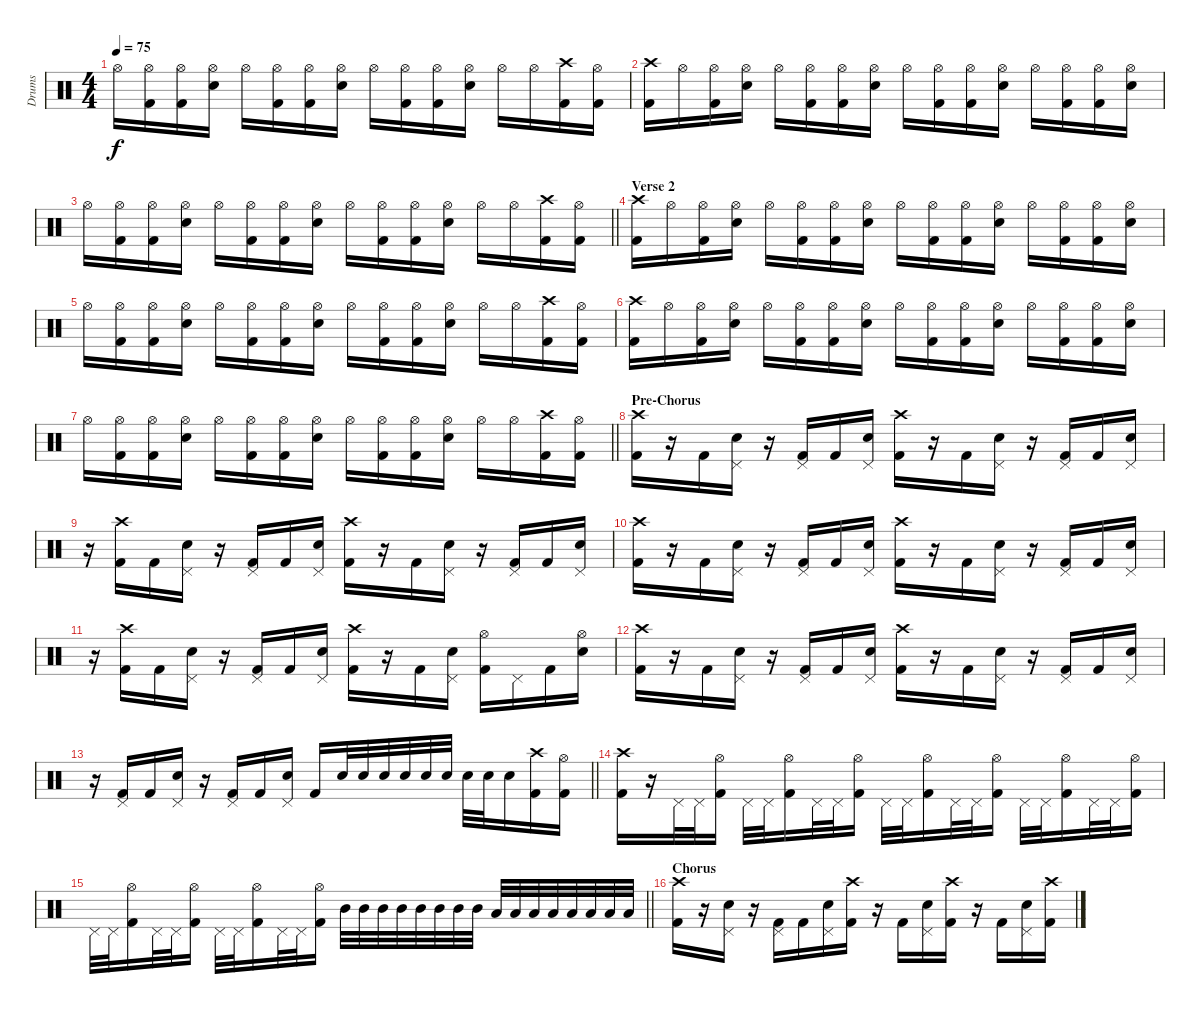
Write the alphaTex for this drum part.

\track ("Drums" "Drums") {instrument percussion}
\staff {score}
\articulation defaults
\ts (4 4)
\tempo 75
\clef neutral
\ks c "Hi-Hat (open)".16{dy f}
("Hi-Hat (open)" "Kick (hit) 2").16 ("Hi-Hat (open)" "Kick (hit) 2").16 ("Hi-Hat (open)" "Snare (hit) 2").16 "Hi-Hat (open)".16 ("Hi-Hat (open)" "Kick (hit) 2").16 ("Hi-Hat (open)" "Kick (hit) 2").16 ("Hi-Hat (open)" "Snare (hit) 2").16 "Hi-Hat (open)".16 ("Hi-Hat (open)" "Kick (hit) 2").16 ("Hi-Hat (open)" "Kick (hit) 2").16 ("Hi-Hat (open)" "Snare (hit) 2").16 "Hi-Hat (open)".16 "Hi-Hat (open)".16 ("Crash high (hit)" "Kick (hit) 2").16 ("Hi-Hat (open)" "Kick (hit) 2").16 |
("Crash high (hit)" "Kick (hit) 2").16 "Hi-Hat (open)".16 ("Hi-Hat (open)" "Kick (hit) 2").16 ("Hi-Hat (open)" "Snare (hit) 2").16 "Hi-Hat (open)".16 ("Hi-Hat (open)" "Kick (hit) 2").16 ("Hi-Hat (open)" "Kick (hit) 2").16 ("Hi-Hat (open)" "Snare (hit) 2").16 "Hi-Hat (open)".16 ("Hi-Hat (open)" "Kick (hit) 2").16 ("Hi-Hat (open)" "Kick (hit) 2").16 ("Hi-Hat (open)" "Snare (hit) 2").16 "Hi-Hat (open)".16 ("Hi-Hat (open)" "Kick (hit) 2").16 ("Hi-Hat (open)" "Kick (hit) 2").16 ("Hi-Hat (open)" "Snare (hit) 2").16 |
\barLineRight lightlight "Hi-Hat (open)".16
("Hi-Hat (open)" "Kick (hit) 2").16 ("Hi-Hat (open)" "Kick (hit) 2").16 ("Hi-Hat (open)" "Snare (hit) 2").16 "Hi-Hat (open)".16 ("Hi-Hat (open)" "Kick (hit) 2").16 ("Hi-Hat (open)" "Kick (hit) 2").16 ("Hi-Hat (open)" "Snare (hit) 2").16 "Hi-Hat (open)".16 ("Hi-Hat (open)" "Kick (hit) 2").16 ("Hi-Hat (open)" "Kick (hit) 2").16 ("Hi-Hat (open)" "Snare (hit) 2").16 "Hi-Hat (open)".16 "Hi-Hat (open)".16 ("Crash high (hit)" "Kick (hit) 2").16 ("Hi-Hat (open)" "Kick (hit) 2").16 |
\section ("" "Verse 2")
("Crash high (hit)" "Kick (hit) 2").16 "Hi-Hat (open)".16 ("Hi-Hat (open)" "Kick (hit) 2").16 ("Hi-Hat (open)" "Snare (hit) 2").16 "Hi-Hat (open)".16 ("Hi-Hat (open)" "Kick (hit) 2").16 ("Hi-Hat (open)" "Kick (hit) 2").16 ("Hi-Hat (open)" "Snare (hit) 2").16 "Hi-Hat (open)".16 ("Hi-Hat (open)" "Kick (hit) 2").16 ("Hi-Hat (open)" "Kick (hit) 2").16 ("Hi-Hat (open)" "Snare (hit) 2").16 "Hi-Hat (open)".16 ("Hi-Hat (open)" "Kick (hit) 2").16 ("Hi-Hat (open)" "Kick (hit) 2").16 ("Hi-Hat (open)" "Snare (hit) 2").16 |
"Hi-Hat (open)".16 ("Hi-Hat (open)" "Kick (hit) 2").16 ("Hi-Hat (open)" "Kick (hit) 2").16 ("Hi-Hat (open)" "Snare (hit) 2").16 "Hi-Hat (open)".16 ("Hi-Hat (open)" "Kick (hit) 2").16 ("Hi-Hat (open)" "Kick (hit) 2").16 ("Hi-Hat (open)" "Snare (hit) 2").16 "Hi-Hat (open)".16 ("Hi-Hat (open)" "Kick (hit) 2").16 ("Hi-Hat (open)" "Kick (hit) 2").16 ("Hi-Hat (open)" "Snare (hit) 2").16 "Hi-Hat (open)".16 "Hi-Hat (open)".16 ("Crash high (hit)" "Kick (hit) 2").16 ("Hi-Hat (open)" "Kick (hit) 2").16 |
("Crash high (hit)" "Kick (hit) 2").16 "Hi-Hat (open)".16 ("Hi-Hat (open)" "Kick (hit) 2").16 ("Hi-Hat (open)" "Snare (hit) 2").16 "Hi-Hat (open)".16 ("Hi-Hat (open)" "Kick (hit) 2").16 ("Hi-Hat (open)" "Kick (hit) 2").16 ("Hi-Hat (open)" "Snare (hit) 2").16 "Hi-Hat (open)".16 ("Hi-Hat (open)" "Kick (hit) 2").16 ("Hi-Hat (open)" "Kick (hit) 2").16 ("Hi-Hat (open)" "Snare (hit) 2").16 "Hi-Hat (open)".16 ("Hi-Hat (open)" "Kick (hit) 2").16 ("Hi-Hat (open)" "Kick (hit) 2").16 ("Hi-Hat (open)" "Snare (hit) 2").16 |
\barLineRight lightlight "Hi-Hat (open)".16
("Hi-Hat (open)" "Kick (hit) 2").16 ("Hi-Hat (open)" "Kick (hit) 2").16 ("Hi-Hat (open)" "Snare (hit) 2").16 "Hi-Hat (open)".16 ("Hi-Hat (open)" "Kick (hit) 2").16 ("Hi-Hat (open)" "Kick (hit) 2").16 ("Hi-Hat (open)" "Snare (hit) 2").16 "Hi-Hat (open)".16 ("Hi-Hat (open)" "Kick (hit) 2").16 ("Hi-Hat (open)" "Kick (hit) 2").16 ("Hi-Hat (open)" "Snare (hit) 2").16 "Hi-Hat (open)".16 "Hi-Hat (open)".16 ("Crash high (hit)" "Kick (hit) 2").16 ("Hi-Hat (open)" "Kick (hit) 2").16 |
\section ("" "Pre-Chorus")
("Crash high (hit)" "Kick (hit) 2").16 r.16 "Kick (hit) 2".16 ("Pedal Hi-Hat (hit)" "Snare (hit) 2").16 r.16 ("Pedal Hi-Hat (hit)" "Kick (hit) 2").16 "Kick (hit) 2".16 ("Pedal Hi-Hat (hit)" "Snare (hit) 2").16 ("Crash high (hit)" "Kick (hit) 2").16 r.16 "Kick (hit) 2".16 ("Pedal Hi-Hat (hit)" "Snare (hit) 2").16 r.16 ("Pedal Hi-Hat (hit)" "Kick (hit) 2").16 "Kick (hit) 2".16 ("Pedal Hi-Hat (hit)" "Snare (hit) 2").16 |
r.16 ("Crash high (hit)" "Kick (hit) 2").16 "Kick (hit) 2".16 ("Pedal Hi-Hat (hit)" "Snare (hit) 2").16 r.16 ("Pedal Hi-Hat (hit)" "Kick (hit) 2").16 "Kick (hit) 2".16 ("Pedal Hi-Hat (hit)" "Snare (hit) 2").16 ("Crash high (hit)" "Kick (hit) 2").16 r.16 "Kick (hit) 2".16 ("Pedal Hi-Hat (hit)" "Snare (hit) 2").16 r.16 ("Pedal Hi-Hat (hit)" "Kick (hit) 2").16 "Kick (hit) 2".16 ("Pedal Hi-Hat (hit)" "Snare (hit) 2").16 |
("Crash high (hit)" "Kick (hit) 2").16 r.16 "Kick (hit) 2".16 ("Pedal Hi-Hat (hit)" "Snare (hit) 2").16 r.16 ("Pedal Hi-Hat (hit)" "Kick (hit) 2").16 "Kick (hit) 2".16 ("Pedal Hi-Hat (hit)" "Snare (hit) 2").16 ("Crash high (hit)" "Kick (hit) 2").16 r.16 "Kick (hit) 2".16 ("Pedal Hi-Hat (hit)" "Snare (hit) 2").16 r.16 ("Pedal Hi-Hat (hit)" "Kick (hit) 2").16 "Kick (hit) 2".16 ("Pedal Hi-Hat (hit)" "Snare (hit) 2").16 |
r.16 ("Crash high (hit)" "Kick (hit) 2").16 "Kick (hit) 2".16 ("Pedal Hi-Hat (hit)" "Snare (hit) 2").16 r.16 ("Pedal Hi-Hat (hit)" "Kick (hit) 2").16 "Kick (hit) 2".16 ("Pedal Hi-Hat (hit)" "Snare (hit) 2").16 ("Crash high (hit)" "Kick (hit) 2").16 r.16 "Kick (hit) 2".16 ("Pedal Hi-Hat (hit)" "Snare (hit) 2").16 ("Hi-Hat (open)" "Kick (hit) 2").16 "Pedal Hi-Hat (hit)".16 "Kick (hit) 2".16 ("Hi-Hat (open)" "Snare (hit) 2").16 |
("Crash high (hit)" "Kick (hit) 2").16 r.16 "Kick (hit) 2".16 ("Pedal Hi-Hat (hit)" "Snare (hit) 2").16 r.16 ("Pedal Hi-Hat (hit)" "Kick (hit) 2").16 "Kick (hit) 2".16 ("Pedal Hi-Hat (hit)" "Snare (hit) 2").16 ("Crash high (hit)" "Kick (hit) 2").16 r.16 "Kick (hit) 2".16 ("Pedal Hi-Hat (hit)" "Snare (hit) 2").16 r.16 ("Pedal Hi-Hat (hit)" "Kick (hit) 2").16 "Kick (hit) 2".16 ("Pedal Hi-Hat (hit)" "Snare (hit) 2").16 |
\barLineRight lightlight
r.16 ("Pedal Hi-Hat (hit)" "Kick (hit) 2").16 "Kick (hit) 2".16 ("Pedal Hi-Hat (hit)" "Snare (hit) 2").16 r.16 ("Pedal Hi-Hat (hit)" "Kick (hit) 2").16 "Kick (hit) 2".16 ("Pedal Hi-Hat (hit)" "Snare (hit) 2").16 "Kick (hit) 2".16 "Snare (hit) 2".32 "Snare (hit) 2".32 "Snare (hit) 2".32 "Snare (hit) 2".32 "Snare (hit) 2".32 "Snare (hit) 2".32 "Snare (hit) 2".32 "Snare (hit) 2".32 "Snare (hit) 2".16 ("Crash high (hit)" "Kick (hit) 2").16 ("Hi-Hat (open)" "Kick (hit) 2").16 |
("Crash high (hit)" "Kick (hit) 2").16 r.16 "Pedal Hi-Hat (hit)".32 "Pedal Hi-Hat (hit)".32 ("Hi-Hat (open)" "Kick (hit) 2").16 "Pedal Hi-Hat (hit)".32 "Pedal Hi-Hat (hit)".32 ("Hi-Hat (open)" "Kick (hit) 2").16 "Pedal Hi-Hat (hit)".32 "Pedal Hi-Hat (hit)".32 ("Hi-Hat (open)" "Kick (hit) 2").16 "Pedal Hi-Hat (hit)".32 "Pedal Hi-Hat (hit)".32 ("Hi-Hat (open)" "Kick (hit) 2").16 "Pedal Hi-Hat (hit)".32 "Pedal Hi-Hat (hit)".32 ("Hi-Hat (open)" "Kick (hit) 2").16 "Pedal Hi-Hat (hit)".32 "Pedal Hi-Hat (hit)".32 ("Hi-Hat (open)" "Kick (hit) 2").16 "Pedal Hi-Hat (hit)".32 "Pedal Hi-Hat (hit)".32 ("Hi-Hat (open)" "Kick (hit) 2").16 |
\barLineRight lightlight "Pedal Hi-Hat (hit)".32 "Pedal Hi-Hat (hit)".32
("Hi-Hat (open)" "Kick (hit) 2").16 "Pedal Hi-Hat (hit)".32 "Pedal Hi-Hat (hit)".32 ("Hi-Hat (open)" "Kick (hit) 2").16 "Pedal Hi-Hat (hit)".32 "Pedal Hi-Hat (hit)".32 ("Hi-Hat (open)" "Kick (hit) 2").16 "Pedal Hi-Hat (hit)".32 "Pedal Hi-Hat (hit)".32 ("Hi-Hat (open)" "Kick (hit) 2").16 "Mid Tom (hit)".32 "Mid Tom (hit)".32 "Mid Tom (hit)".32 "Mid Tom (hit)".32 "Mid Tom (hit)".32 "Mid Tom (hit)".32 "Mid Tom (hit)".32 "Mid Tom (hit)".32 "Low Tom (hit)".32 "Low Tom (hit)".32 "Low Tom (hit)".32 "Low Tom (hit)".32 "Low Tom (hit)".32 "Low Tom (hit)".32 "Low Tom (hit)".32 "Low Tom (hit)".32 |
\section ("" "Chorus")
("Crash high (hit)" "Kick (hit) 2").16 r.16 ("Pedal Hi-Hat (hit)" "Snare (hit) 2").16 r.16 ("Pedal Hi-Hat (hit)" "Kick (hit) 2").16 "Kick (hit) 2".16 ("Pedal Hi-Hat (hit)" "Snare (hit) 2").16 ("Crash high (hit)" "Kick (hit) 2").16 r.16 "Kick (hit) 2".16 ("Pedal Hi-Hat (hit)" "Snare (hit) 2").16 ("Crash high (hit)" "Kick (hit) 2").16 r.16 "Kick (hit) 2".16 ("Pedal Hi-Hat (hit)" "Snare (hit) 2").16 ("Crash high (hit)" "Kick (hit) 2").16
